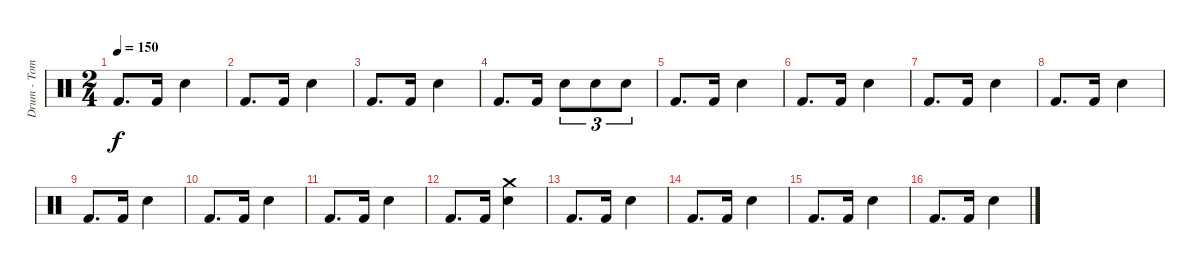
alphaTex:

\track ("Drum - Tom" "Drum - Tom") {instrument percussion}
\staff {score}
\articulation defaults
\ts (2 4)
\tempo 150
\clef neutral
\ks c "Kick (hit) 2".8{d dy f} "Kick (hit) 2".16 "Electric Snare (hit)".4
|
"Kick (hit) 2".8{d} "Kick (hit) 2".16 "Electric Snare (hit)".4 |
"Kick (hit) 2".8{d} "Kick (hit) 2".16 "Electric Snare (hit)".4 |
"Kick (hit) 2".8{d} "Kick (hit) 2".16 "Electric Snare (hit)".8{tu (3 2)} "Electric Snare (hit)".8{tu (3 2)} "Electric Snare (hit)".8{tu (3 2)} |
"Kick (hit) 2".8{d} "Kick (hit) 2".16 "Electric Snare (hit)".4 |
"Kick (hit) 2".8{d} "Kick (hit) 2".16 "Electric Snare (hit)".4 |
"Kick (hit) 2".8{d} "Kick (hit) 2".16 "Electric Snare (hit)".4 |
"Kick (hit) 2".8{d} "Kick (hit) 2".16 "Electric Snare (hit)".4 |
"Kick (hit) 2".8{d} "Kick (hit) 2".16 "Electric Snare (hit)".4 |
"Kick (hit) 2".8{d} "Kick (hit) 2".16 "Electric Snare (hit)".4 |
"Kick (hit) 2".8{d} "Kick (hit) 2".16 "Electric Snare (hit)".4 |
"Kick (hit) 2".8{d} "Kick (hit) 2".16 ("Crash medium (hit)" "Electric Snare (hit)").4 |
"Kick (hit) 2".8{d} "Kick (hit) 2".16 "Electric Snare (hit)".4 |
"Kick (hit) 2".8{d} "Kick (hit) 2".16 "Electric Snare (hit)".4 |
"Kick (hit) 2".8{d} "Kick (hit) 2".16 "Electric Snare (hit)".4 |
"Kick (hit) 2".8{d} "Kick (hit) 2".16 "Electric Snare (hit)".4
